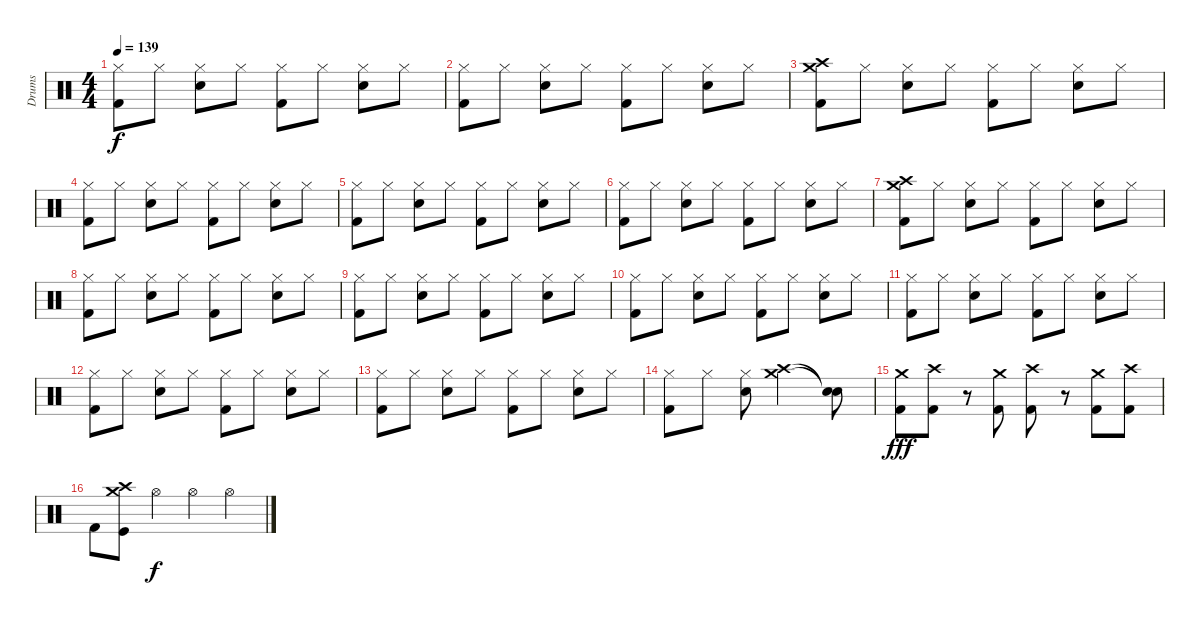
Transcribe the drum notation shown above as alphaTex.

\track ("Drums" "Drums") {instrument percussion}
\staff {score}
\articulation defaults
\ts (4 4)
\tempo 139
\clef neutral
\ks c
("Hi-Hat (closed)" "Kick (hit) 2").8{dy f} "Hi-Hat (closed)".8 ("Hi-Hat (closed)" "Snare (hit) 2").8 "Hi-Hat (closed)".8 ("Hi-Hat (closed)" "Kick (hit) 2").8 "Hi-Hat (closed)".8 ("Hi-Hat (closed)" "Snare (hit) 2").8 "Hi-Hat (closed)".8 |
("Hi-Hat (closed)" "Kick (hit) 2").8 "Hi-Hat (closed)".8 ("Hi-Hat (closed)" "Snare (hit) 2").8 "Hi-Hat (closed)".8 ("Hi-Hat (closed)" "Kick (hit) 2").8 "Hi-Hat (closed)".8 ("Hi-Hat (closed)" "Snare (hit) 2").8 "Hi-Hat (closed)".8 |
("Crash high (hit)" "Crash medium (hit)" "Kick (hit) 2").8 "Hi-Hat (closed)".8 ("Hi-Hat (closed)" "Snare (hit) 2").8 "Hi-Hat (closed)".8 ("Hi-Hat (closed)" "Kick (hit) 2").8 "Hi-Hat (closed)".8 ("Hi-Hat (closed)" "Snare (hit) 2").8 "Hi-Hat (closed)".8 |
("Hi-Hat (closed)" "Kick (hit) 2").8 "Hi-Hat (closed)".8 ("Hi-Hat (closed)" "Snare (hit) 2").8 "Hi-Hat (closed)".8 ("Hi-Hat (closed)" "Kick (hit) 2").8 "Hi-Hat (closed)".8 ("Hi-Hat (closed)" "Snare (hit) 2").8 "Hi-Hat (closed)".8 |
("Hi-Hat (closed)" "Kick (hit) 2").8 "Hi-Hat (closed)".8 ("Hi-Hat (closed)" "Snare (hit) 2").8 "Hi-Hat (closed)".8 ("Hi-Hat (closed)" "Kick (hit) 2").8 "Hi-Hat (closed)".8 ("Hi-Hat (closed)" "Snare (hit) 2").8 "Hi-Hat (closed)".8 |
("Hi-Hat (closed)" "Kick (hit) 2").8 "Hi-Hat (closed)".8 ("Hi-Hat (closed)" "Snare (hit) 2").8 "Hi-Hat (closed)".8 ("Hi-Hat (closed)" "Kick (hit) 2").8 "Hi-Hat (closed)".8 ("Hi-Hat (closed)" "Snare (hit) 2").8 "Hi-Hat (closed)".8 |
("Crash medium (hit)" "Crash high (hit)" "Kick (hit) 2").8 "Hi-Hat (closed)".8 ("Hi-Hat (closed)" "Snare (hit) 2").8 "Hi-Hat (closed)".8 ("Hi-Hat (closed)" "Kick (hit) 2").8 "Hi-Hat (closed)".8 ("Hi-Hat (closed)" "Snare (hit) 2").8 "Hi-Hat (closed)".8 |
("Hi-Hat (closed)" "Kick (hit) 2").8 "Hi-Hat (closed)".8 ("Hi-Hat (closed)" "Snare (hit) 2").8 "Hi-Hat (closed)".8 ("Hi-Hat (closed)" "Kick (hit) 2").8 "Hi-Hat (closed)".8 ("Hi-Hat (closed)" "Snare (hit) 2").8 "Hi-Hat (closed)".8 |
("Hi-Hat (closed)" "Kick (hit) 2").8 "Hi-Hat (closed)".8 ("Hi-Hat (closed)" "Snare (hit) 2").8 "Hi-Hat (closed)".8 ("Hi-Hat (closed)" "Kick (hit) 2").8 "Hi-Hat (closed)".8 ("Hi-Hat (closed)" "Snare (hit) 2").8 "Hi-Hat (closed)".8 |
("Hi-Hat (closed)" "Kick (hit) 2").8 "Hi-Hat (closed)".8 ("Hi-Hat (closed)" "Snare (hit) 2").8 "Hi-Hat (closed)".8 ("Hi-Hat (closed)" "Kick (hit) 2").8 "Hi-Hat (closed)".8 ("Hi-Hat (closed)" "Snare (hit) 2").8 "Hi-Hat (closed)".8 |
("Hi-Hat (closed)" "Kick (hit) 2").8 "Hi-Hat (closed)".8 ("Hi-Hat (closed)" "Snare (hit) 2").8 "Hi-Hat (closed)".8 ("Hi-Hat (closed)" "Kick (hit) 2").8 "Hi-Hat (closed)".8 ("Hi-Hat (closed)" "Snare (hit) 2").8 "Hi-Hat (closed)".8 |
("Hi-Hat (closed)" "Kick (hit) 2").8 "Hi-Hat (closed)".8 ("Hi-Hat (closed)" "Snare (hit) 2").8 "Hi-Hat (closed)".8 ("Hi-Hat (closed)" "Kick (hit) 2").8 "Hi-Hat (closed)".8 ("Hi-Hat (closed)" "Snare (hit) 2").8 "Hi-Hat (closed)".8 |
("Hi-Hat (closed)" "Kick (hit) 2").8 "Hi-Hat (closed)".8 ("Hi-Hat (closed)" "Snare (hit) 2").8 "Hi-Hat (closed)".8 ("Hi-Hat (closed)" "Kick (hit) 2").8 "Hi-Hat (closed)".8 ("Hi-Hat (closed)" "Snare (hit) 2").8 "Hi-Hat (closed)".8 |
("Hi-Hat (closed)" "Kick (hit) 2").8 "Hi-Hat (closed)".8 ("Hi-Hat (closed)" "Snare (hit) 2").8 ("Crash medium (hit)" "Crash high (hit)").2 ("Snare (hit)"{t} "Snare (hit)"{t}).8 |
("Crash medium (hit)" "Kick (hit) 2").8{dy fff} ("Crash high (hit)" "Kick (hit) 2").8 r.8 ("Crash medium (hit)" "Kick (hit) 2").8 ("Crash high (hit)" "Kick (hit) 2").8 r.8 ("Crash medium (hit)" "Kick (hit) 2").8 ("Crash high (hit)" "Kick (hit) 2").8 |
"Kick (hit) 2".8{volume 12} ("Crash high (hit)" "Kick (hit)" "Crash medium (hit)").8 "Hi-Hat (open)".4{dy f} "Hi-Hat (open)".4 "Hi-Hat (open)".4
